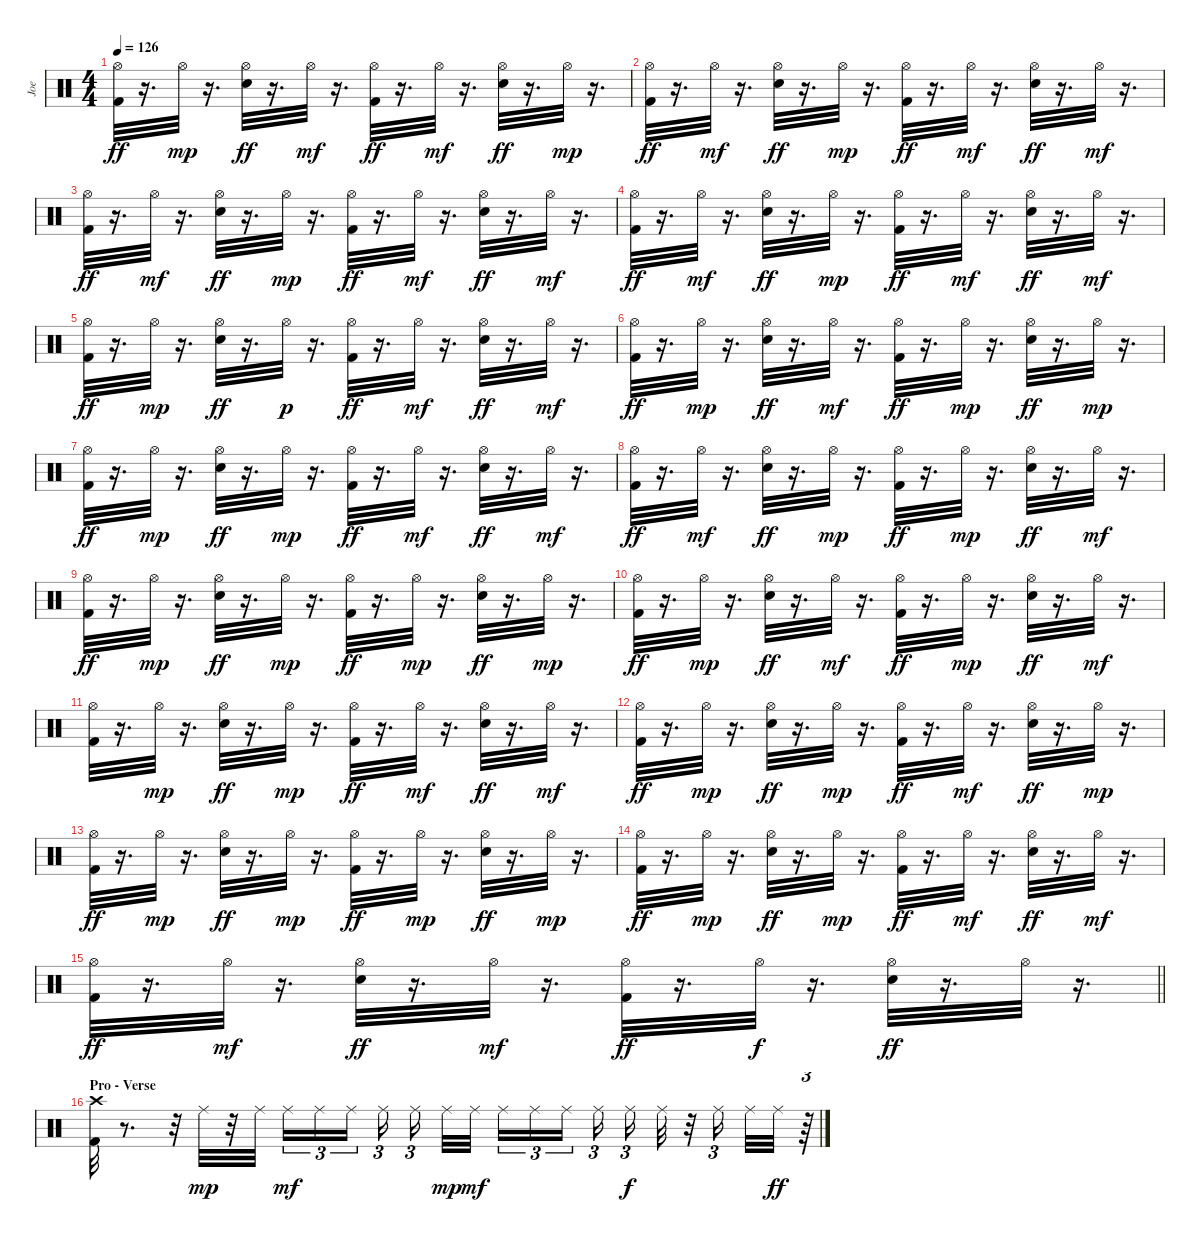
\track ("Joe" "Joe") {instrument percussion}
\staff {score}
\articulation defaults
\ts (4 4)
\tempo 126
\clef neutral
\ks c
("Kick (hit) 2" "Hi-Hat (open)").32{dy ff} r.16{d} "Hi-Hat (open)".32{dy mp} r.16{d} ("Electric Snare (hit)" "Hi-Hat (open)").32{dy ff} r.16{d} "Hi-Hat (open)".32{dy mf} r.16{d} ("Kick (hit) 2" "Hi-Hat (open)").32{dy ff} r.16{d} "Hi-Hat (open)".32{dy mf} r.16{d} ("Electric Snare (hit)" "Hi-Hat (open)").32{dy ff} r.16{d} "Hi-Hat (open)".32{dy mp} r.16{d} |
("Kick (hit) 2" "Hi-Hat (open)").32{dy ff} r.16{d} "Hi-Hat (open)".32{dy mf} r.16{d} ("Electric Snare (hit)" "Hi-Hat (open)").32{dy ff} r.16{d} "Hi-Hat (open)".32{dy mp} r.16{d} ("Kick (hit) 2" "Hi-Hat (open)").32{dy ff} r.16{d} "Hi-Hat (open)".32{dy mf} r.16{d} ("Electric Snare (hit)" "Hi-Hat (open)").32{dy ff} r.16{d} "Hi-Hat (open)".32{dy mf} r.16{d} |
("Hi-Hat (open)" "Kick (hit) 2").32{dy ff} r.16{d} "Hi-Hat (open)".32{dy mf} r.16{d} ("Hi-Hat (open)" "Electric Snare (hit)").32{dy ff} r.16{d} "Hi-Hat (open)".32{dy mp} r.16{d} ("Kick (hit) 2" "Hi-Hat (open)").32{dy ff} r.16{d} "Hi-Hat (open)".32{dy mf} r.16{d} ("Electric Snare (hit)" "Hi-Hat (open)").32{dy ff} r.16{d} "Hi-Hat (open)".32{dy mf} r.16{d} |
("Kick (hit) 2" "Hi-Hat (open)").32{dy ff} r.16{d} "Hi-Hat (open)".32{dy mf} r.16{d} ("Electric Snare (hit)" "Hi-Hat (open)").32{dy ff} r.16{d} "Hi-Hat (open)".32{dy mp} r.16{d} ("Kick (hit) 2" "Hi-Hat (open)").32{dy ff} r.16{d} "Hi-Hat (open)".32{dy mf} r.16{d} ("Electric Snare (hit)" "Hi-Hat (open)").32{dy ff} r.16{d} "Hi-Hat (open)".32{dy mf} r.16{d} |
("Kick (hit) 2" "Hi-Hat (open)").32{dy ff} r.16{d} "Hi-Hat (open)".32{dy mp} r.16{d} ("Electric Snare (hit)" "Hi-Hat (open)").32{dy ff} r.16{d} "Hi-Hat (open)".32{dy p} r.16{d} ("Kick (hit) 2" "Hi-Hat (open)").32{dy ff} r.16{d} "Hi-Hat (open)".32{dy mf} r.16{d} ("Hi-Hat (open)" "Electric Snare (hit)").32{dy ff} r.16{d} "Hi-Hat (open)".32{dy mf} r.16{d} |
("Kick (hit) 2" "Hi-Hat (open)").32{dy ff} r.16{d} "Hi-Hat (open)".32{dy mp} r.16{d} ("Electric Snare (hit)" "Hi-Hat (open)").32{dy ff} r.16{d} "Hi-Hat (open)".32{dy mf} r.16{d} ("Kick (hit) 2" "Hi-Hat (open)").32{dy ff} r.16{d} "Hi-Hat (open)".32{dy mp} r.16{d} ("Electric Snare (hit)" "Hi-Hat (open)").32{dy ff} r.16{d} "Hi-Hat (open)".32{dy mp} r.16{d} |
("Kick (hit) 2" "Hi-Hat (open)").32{dy ff} r.16{d} "Hi-Hat (open)".32{dy mp} r.16{d} ("Electric Snare (hit)" "Hi-Hat (open)").32{dy ff} r.16{d} "Hi-Hat (open)".32{dy mp} r.16{d} ("Hi-Hat (open)" "Kick (hit) 2").32{dy ff} r.16{d} "Hi-Hat (open)".32{dy mf} r.16{d} ("Electric Snare (hit)" "Hi-Hat (open)").32{dy ff} r.16{d} "Hi-Hat (open)".32{dy mf} r.16{d} |
("Kick (hit) 2" "Hi-Hat (open)").32{dy ff} r.16{d} "Hi-Hat (open)".32{dy mf} r.16{d} ("Electric Snare (hit)" "Hi-Hat (open)").32{dy ff} r.16{d} "Hi-Hat (open)".32{dy mp} r.16{d} ("Kick (hit) 2" "Hi-Hat (open)").32{dy ff} r.16{d} "Hi-Hat (open)".32{dy mp} r.16{d} ("Electric Snare (hit)" "Hi-Hat (open)").32{dy ff} r.16{d} "Hi-Hat (open)".32{dy mf} r.16{d} |
("Kick (hit) 2" "Hi-Hat (open)").32{dy ff} r.16{d} "Hi-Hat (open)".32{dy mp} r.16{d} ("Electric Snare (hit)" "Hi-Hat (open)").32{dy ff} r.16{d} "Hi-Hat (open)".32{dy mp} r.16{d} ("Hi-Hat (open)" "Kick (hit) 2").32{dy ff} r.16{d} "Hi-Hat (open)".32{dy mp} r.16{d} ("Electric Snare (hit)" "Hi-Hat (open)").32{dy ff} r.16{d} "Hi-Hat (open)".32{dy mp} r.16{d} |
("Hi-Hat (open)" "Kick (hit) 2").32{dy ff} r.16{d} "Hi-Hat (open)".32{dy mp} r.16{d} ("Electric Snare (hit)" "Hi-Hat (open)").32{dy ff} r.16{d} "Hi-Hat (open)".32{dy mf} r.16{d} ("Kick (hit) 2" "Hi-Hat (open)").32{dy ff} r.16{d} "Hi-Hat (open)".32{dy mp} r.16{d} ("Electric Snare (hit)" "Hi-Hat (open)").32{dy ff} r.16{d} "Hi-Hat (open)".32{dy mf} r.16{d} |
("Kick (hit) 2" "Hi-Hat (open)").32 r.16{d} "Hi-Hat (open)".32{dy mp} r.16{d} ("Electric Snare (hit)" "Hi-Hat (open)").32{dy ff} r.16{d} "Hi-Hat (open)".32{dy mp} r.16{d} ("Kick (hit) 2" "Hi-Hat (open)").32{dy ff} r.16{d} "Hi-Hat (open)".32{dy mf} r.16{d} ("Electric Snare (hit)" "Hi-Hat (open)").32{dy ff} r.16{d} "Hi-Hat (open)".32{dy mf} r.16{d} |
("Kick (hit) 2" "Hi-Hat (open)").32{dy ff} r.16{d} "Hi-Hat (open)".32{dy mp} r.16{d} ("Hi-Hat (open)" "Electric Snare (hit)").32{dy ff} r.16{d} "Hi-Hat (open)".32{dy mp} r.16{d} ("Hi-Hat (open)" "Kick (hit) 2").32{dy ff} r.16{d} "Hi-Hat (open)".32{dy mf} r.16{d} ("Electric Snare (hit)" "Hi-Hat (open)").32{dy ff} r.16{d} "Hi-Hat (open)".32{dy mp} r.16{d} |
("Kick (hit) 2" "Hi-Hat (open)").32{dy ff} r.16{d} "Hi-Hat (open)".32{dy mp} r.16{d} ("Electric Snare (hit)" "Hi-Hat (open)").32{dy ff} r.16{d} "Hi-Hat (open)".32{dy mp} r.16{d} ("Hi-Hat (open)" "Kick (hit) 2").32{dy ff} r.16{d} "Hi-Hat (open)".32{dy mp} r.16{d} ("Hi-Hat (open)" "Electric Snare (hit)").32{dy ff} r.16{d} "Hi-Hat (open)".32{dy mp} r.16{d} |
("Kick (hit) 2" "Hi-Hat (open)").32{dy ff} r.16{d} "Hi-Hat (open)".32{dy mp} r.16{d} ("Electric Snare (hit)" "Hi-Hat (open)").32{dy ff} r.16{d} "Hi-Hat (open)".32{dy mp} r.16{d} ("Kick (hit) 2" "Hi-Hat (open)").32{dy ff} r.16{d} "Hi-Hat (open)".32{dy mf} r.16{d} ("Electric Snare (hit)" "Hi-Hat (open)").32{dy ff} r.16{d} "Hi-Hat (open)".32{dy mf} r.16{d} |
\barLineRight lightlight
("Kick (hit) 2" "Hi-Hat (open)").32{dy ff} r.16{d} "Hi-Hat (open)".32{dy mf} r.16{d} ("Electric Snare (hit)" "Hi-Hat (open)").32{dy ff} r.16{d} "Hi-Hat (open)".32{dy mf} r.16{d} ("Kick (hit) 2" "Hi-Hat (open)").32{dy ff} r.16{d} "Hi-Hat (open)".32{dy f} r.16{d} ("Electric Snare (hit)" "Hi-Hat (open)").32{dy ff} r.16{d} "Hi-Hat (open)".32 r.16{d} |
\section ("" "Pro - Verse")
("Crash high (hit)" "Kick (hit) 2").32 r.8{d} r.32 "Ride (middle)".32{dy mp} r.32 "Ride (middle)".32{beam splitsecondary} "Ride (middle)".16{tu (3 2) dy mf} "Ride (middle)".16{tu (3 2)} "Ride (middle)".16{tu (3 2) beam splitsecondary} "Ride (middle)".16{tu (3 2)} "Ride (middle)".16{tu (3 2) beam splitsecondary} "Ride (middle)".32{dy mp} "Ride (middle)".32{dy mf beam splitsecondary} "Ride (middle)".16{tu (3 2)} "Ride (middle)".16{tu (3 2)} "Ride (middle)".16{tu (3 2) beam splitsecondary} "Ride (middle)".16{tu (3 2)} "Ride (middle)".16{tu (3 2) dy f} "Ride (middle)".32 r.32 "Ride (middle)".16{tu (3 2) beam splitsecondary} "Ride (middle)".32 "Ride (middle)".32{dy ff} r.64{tu (3 2)}
